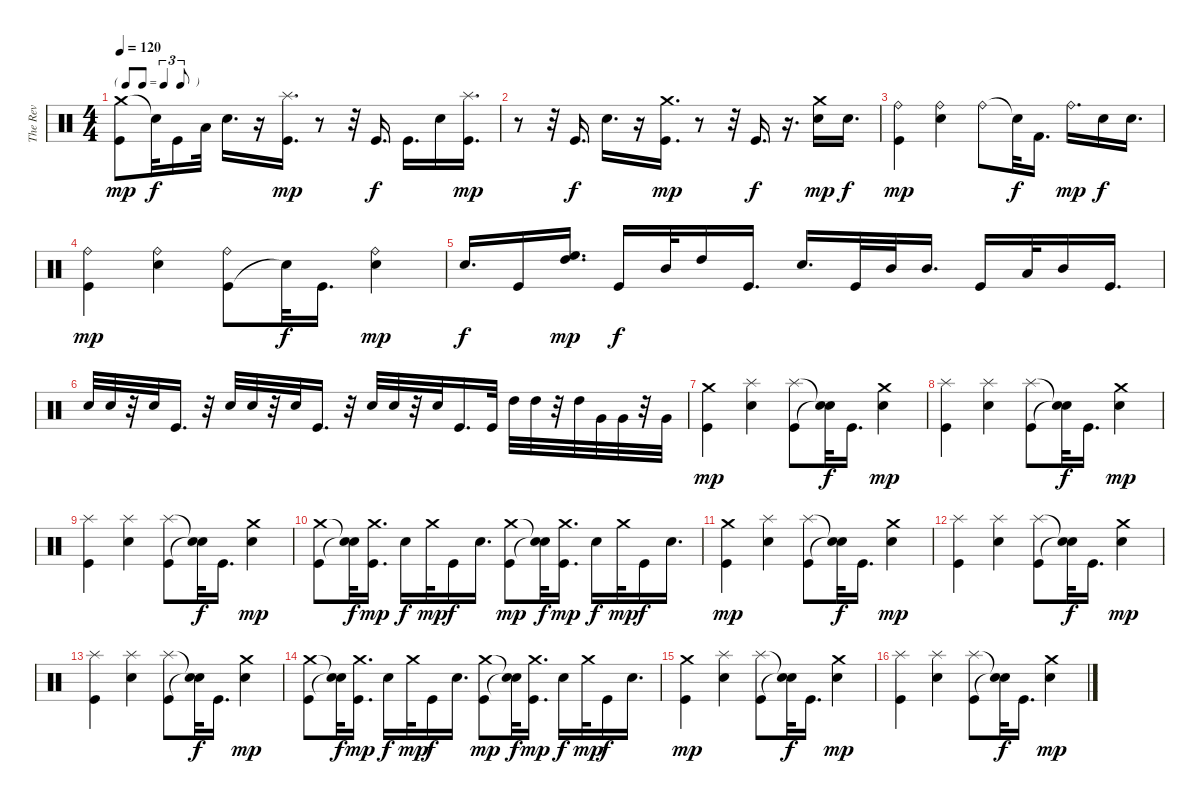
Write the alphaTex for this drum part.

\track ("The Rev" "The Rev") {instrument percussion}
\staff {score}
\articulation defaults
\ts (4 4)
\tf triplet8th
\tempo 120
\clef neutral
\ks c
("Crash medium (hit)" "Kick (hit)").8{dy mp} "Snare (hit)"{t}.32{dy f} "Kick (hit)".16 "Low Floor Tom (hit)".32 "Electric Snare (hit)".16{d} r.16 ("Splash (hit)" "Kick (hit)").16{d dy mp} r.8 r.32 "Kick (hit)".16{d dy f} "Kick (hit)".16{d} "Electric Snare (hit)".16 ("Splash (hit)" "Kick (hit)").16{d dy mp} |
r.8 r.32 "Kick (hit)".16{d dy f} "Electric Snare (hit)".16{d} r.16 ("Crash medium (hit)" "Kick (hit)").16{d dy mp} r.8 r.32 "Kick (hit)".16{d dy f} r.16{d} ("Electric Snare (hit)" "Crash medium (hit)").16{dy mp} "Electric Snare (hit)".16{d dy f} |
("Kick (hit)" "Ride (bell)").4{dy mp} ("Electric Snare (hit)" "Ride (bell)").4 "Ride (bell)".8 "Snare (hit)"{t}.32{dy f} "Kick (hit) 2".16{d} "Ride (bell)".16{d dy mp} "Electric Snare (hit)".16{dy f} "Electric Snare (hit)".16{d} |
("Kick (hit)" "Ride (bell)").4{dy mp} ("Electric Snare (hit)" "Ride (bell)").4 ("Kick (hit)" "Ride (bell)").8 "Snare (hit)"{t}.32{dy f} "Kick (hit)".16{d} ("Electric Snare (hit)" "Ride (bell)").4{dy mp} |
"Electric Snare (hit)".16{d dy f} "Kick (hit)".16 ("High Floor Tom (hit)" "High Tom (hit)").16{d dy mp} "Kick (hit)".16{dy f} "Mid Tom (hit)".32 "High Tom (hit)".16 "Kick (hit)".16{d} "Electric Snare (hit)".16{d} "Kick (hit)".32 "Mid Tom (hit)".32 "Mid Tom (hit)".16{d} "Kick (hit)".16 "Low Tom (hit)".32 "Mid Tom (hit)".16 "Kick (hit)".16{d} |
"Electric Snare (hit)".32 "Electric Snare (hit)".32 r.32 "Electric Snare (hit)".32 "Kick (hit)".16{d} r.32 "Electric Snare (hit)".32 "Electric Snare (hit)".32 r.32 "Electric Snare (hit)".32 "Kick (hit)".16{d} r.32 "Electric Snare (hit)".32 "Electric Snare (hit)".32 r.32 "Electric Snare (hit)".32 "Kick (hit)".16{d} "Kick (hit)".32 "High Tom (hit)".32 "High Tom (hit)".32 r.32 "High Tom (hit)".32 "Very Low Tom (hit)".32 "Very Low Tom (hit)".32 r.32 "Very Low Tom (hit)".32 |
("Kick (hit)" "Crash medium (hit)").4{dy mp} ("Electric Snare (hit)" "Splash (hit)").4 ("Kick (hit)" "Splash (hit)").8 ("Snare (hit)"{t} "Snare (hit)"{t}).32{dy f} "Kick (hit)".16{d} ("Electric Snare (hit)" "Crash medium (hit)").4{dy mp} |
("Kick (hit)" "Splash (hit)").4 ("Electric Snare (hit)" "Splash (hit)").4 ("Kick (hit)" "Splash (hit)").8 ("Snare (hit)"{t} "Snare (hit)"{t}).32{dy f} "Kick (hit)".16{d} ("Electric Snare (hit)" "Crash medium (hit)").4{dy mp} |
("Kick (hit)" "Splash (hit)").4 ("Electric Snare (hit)" "Splash (hit)").4 ("Kick (hit)" "Splash (hit)").8 ("Snare (hit)"{t} "Snare (hit)"{t}).32{dy f} "Kick (hit)".16{d} ("Electric Snare (hit)" "Crash medium (hit)").4{dy mp} |
("Crash medium (hit)" "Kick (hit)").8 ("Snare (hit)"{t} "Snare (hit)"{t}).32{dy f} ("Crash medium (hit)" "Kick (hit)").16{d dy mp} "Electric Snare (hit)".16{dy f} "Crash medium (hit)".32{dy mp} "Kick (hit)".16{dy f} "Electric Snare (hit)".16{d} ("Crash medium (hit)" "Kick (hit)").8{dy mp} ("Snare (hit)"{t} "Snare (hit)"{t}).32{dy f} ("Crash medium (hit)" "Kick (hit)").16{d dy mp} "Electric Snare (hit)".16{dy f} "Crash medium (hit)".32{dy mp} "Kick (hit)".16{dy f} "Electric Snare (hit)".16{d} |
("Kick (hit)" "Crash medium (hit)").4{dy mp} ("Electric Snare (hit)" "Splash (hit)").4 ("Kick (hit)" "Splash (hit)").8 ("Snare (hit)"{t} "Snare (hit)"{t}).32{dy f} "Kick (hit)".16{d} ("Electric Snare (hit)" "Crash medium (hit)").4{dy mp} |
("Kick (hit)" "Splash (hit)").4 ("Electric Snare (hit)" "Splash (hit)").4 ("Kick (hit)" "Splash (hit)").8 ("Snare (hit)"{t} "Snare (hit)"{t}).32{dy f} "Kick (hit)".16{d} ("Electric Snare (hit)" "Crash medium (hit)").4{dy mp} |
("Kick (hit)" "Splash (hit)").4 ("Electric Snare (hit)" "Splash (hit)").4 ("Kick (hit)" "Splash (hit)").8 ("Snare (hit)"{t} "Snare (hit)"{t}).32{dy f} "Kick (hit)".16{d} ("Electric Snare (hit)" "Crash medium (hit)").4{dy mp} |
("Crash medium (hit)" "Kick (hit)").8 ("Snare (hit)"{t} "Snare (hit)"{t}).32{dy f} ("Crash medium (hit)" "Kick (hit)").16{d dy mp} "Electric Snare (hit)".16{dy f} "Crash medium (hit)".32{dy mp} "Kick (hit)".16{dy f} "Electric Snare (hit)".16{d} ("Crash medium (hit)" "Kick (hit)").8{dy mp} ("Snare (hit)"{t} "Snare (hit)"{t}).32{dy f} ("Crash medium (hit)" "Kick (hit)").16{d dy mp} "Electric Snare (hit)".16{dy f} "Crash medium (hit)".32{dy mp} "Kick (hit)".16{dy f} "Electric Snare (hit)".16{d} |
("Kick (hit)" "Crash medium (hit)").4{dy mp} ("Electric Snare (hit)" "Splash (hit)").4 ("Kick (hit)" "Splash (hit)").8 ("Snare (hit)"{t} "Snare (hit)"{t}).32{dy f} "Kick (hit)".16{d} ("Electric Snare (hit)" "Crash medium (hit)").4{dy mp} |
("Kick (hit)" "Splash (hit)").4 ("Electric Snare (hit)" "Splash (hit)").4 ("Kick (hit)" "Splash (hit)").8 ("Snare (hit)"{t} "Snare (hit)"{t}).32{dy f} "Kick (hit)".16{d} ("Electric Snare (hit)" "Crash medium (hit)").4{dy mp}
